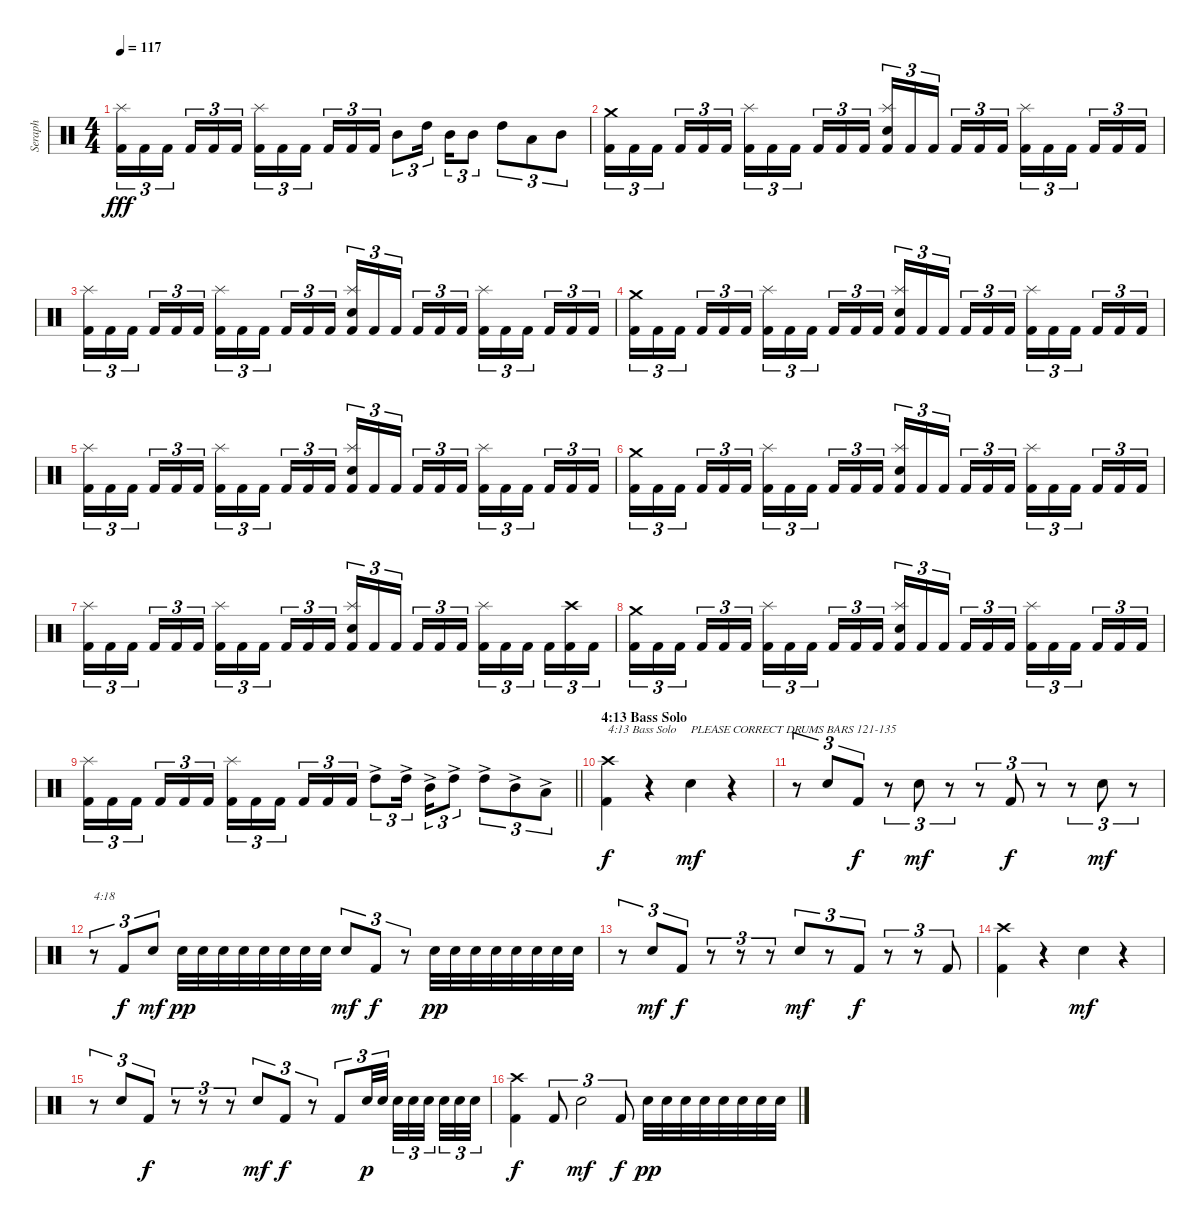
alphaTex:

\track ("Seraph" "Seraph") {instrument percussion}
\staff {score}
\articulation defaults
\ts (4 4)
\tempo 117
\clef neutral
\ks c
("Kick (hit) 2" "Splash (hit)").16{tu (3 2) dy fff} "Kick (hit) 2".16{tu (3 2)} "Kick (hit) 2".16{tu (3 2) beam splitsecondary} "Kick (hit) 2".16{tu (3 2)} "Kick (hit) 2".16{tu (3 2)} "Kick (hit) 2".16{tu (3 2)} ("Kick (hit) 2" "Splash (hit)").16{tu (3 2)} "Kick (hit) 2".16{tu (3 2)} "Kick (hit) 2".16{tu (3 2) beam splitsecondary} "Kick (hit) 2".16{tu (3 2)} "Kick (hit) 2".16{tu (3 2)} "Kick (hit) 2".16{tu (3 2)} "Mid Tom (hit)".8{tu (3 2)} "High Tom (hit)".16{tu (3 2) beam splitsecondary} "Mid Tom (hit)".16{tu (3 2)} "Mid Tom (hit)".8{tu (3 2)} "High Tom (hit)".8{tu (3 2)} "Low Tom (hit)".8{tu (3 2)} "Mid Tom (hit)".8{tu (3 2)} |
("Crash medium (hit)" "Kick (hit) 2").16{tu (3 2)} "Kick (hit) 2".16{tu (3 2)} "Kick (hit) 2".16{tu (3 2) beam splitsecondary} "Kick (hit) 2".16{tu (3 2)} "Kick (hit) 2".16{tu (3 2)} "Kick (hit) 2".16{tu (3 2)} ("Splash (hit)" "Kick (hit) 2").16{tu (3 2)} "Kick (hit) 2".16{tu (3 2)} "Kick (hit) 2".16{tu (3 2) beam splitsecondary} "Kick (hit) 2".16{tu (3 2)} "Kick (hit) 2".16{tu (3 2)} "Kick (hit) 2".16{tu (3 2)} ("Splash (hit)" "Electric Snare (hit)" "Kick (hit) 2").16{tu (3 2)} "Kick (hit) 2".16{tu (3 2)} "Kick (hit) 2".16{tu (3 2) beam splitsecondary} "Kick (hit) 2".16{tu (3 2)} "Kick (hit) 2".16{tu (3 2)} "Kick (hit) 2".16{tu (3 2)} ("Splash (hit)" "Kick (hit) 2").16{tu (3 2)} "Kick (hit) 2".16{tu (3 2)} "Kick (hit) 2".16{tu (3 2) beam splitsecondary} "Kick (hit) 2".16{tu (3 2)} "Kick (hit) 2".16{tu (3 2)} "Kick (hit) 2".16{tu (3 2)} |
("Splash (hit)" "Kick (hit) 2").16{tu (3 2)} "Kick (hit) 2".16{tu (3 2)} "Kick (hit) 2".16{tu (3 2) beam splitsecondary} "Kick (hit) 2".16{tu (3 2)} "Kick (hit) 2".16{tu (3 2)} "Kick (hit) 2".16{tu (3 2)} ("Splash (hit)" "Kick (hit) 2").16{tu (3 2)} "Kick (hit) 2".16{tu (3 2)} "Kick (hit) 2".16{tu (3 2) beam splitsecondary} "Kick (hit) 2".16{tu (3 2)} "Kick (hit) 2".16{tu (3 2)} "Kick (hit) 2".16{tu (3 2)} ("Splash (hit)" "Electric Snare (hit)" "Kick (hit) 2").16{tu (3 2)} "Kick (hit) 2".16{tu (3 2)} "Kick (hit) 2".16{tu (3 2) beam splitsecondary} "Kick (hit) 2".16{tu (3 2)} "Kick (hit) 2".16{tu (3 2)} "Kick (hit) 2".16{tu (3 2)} ("Splash (hit)" "Kick (hit) 2").16{tu (3 2)} "Kick (hit) 2".16{tu (3 2)} "Kick (hit) 2".16{tu (3 2) beam splitsecondary} "Kick (hit) 2".16{tu (3 2)} "Kick (hit) 2".16{tu (3 2)} "Kick (hit) 2".16{tu (3 2)} |
("Crash medium (hit)" "Kick (hit) 2").16{tu (3 2)} "Kick (hit) 2".16{tu (3 2)} "Kick (hit) 2".16{tu (3 2) beam splitsecondary} "Kick (hit) 2".16{tu (3 2)} "Kick (hit) 2".16{tu (3 2)} "Kick (hit) 2".16{tu (3 2)} ("Splash (hit)" "Kick (hit) 2").16{tu (3 2)} "Kick (hit) 2".16{tu (3 2)} "Kick (hit) 2".16{tu (3 2) beam splitsecondary} "Kick (hit) 2".16{tu (3 2)} "Kick (hit) 2".16{tu (3 2)} "Kick (hit) 2".16{tu (3 2)} ("Splash (hit)" "Electric Snare (hit)" "Kick (hit) 2").16{tu (3 2)} "Kick (hit) 2".16{tu (3 2)} "Kick (hit) 2".16{tu (3 2) beam splitsecondary} "Kick (hit) 2".16{tu (3 2)} "Kick (hit) 2".16{tu (3 2)} "Kick (hit) 2".16{tu (3 2)} ("Splash (hit)" "Kick (hit) 2").16{tu (3 2)} "Kick (hit) 2".16{tu (3 2)} "Kick (hit) 2".16{tu (3 2) beam splitsecondary} "Kick (hit) 2".16{tu (3 2)} "Kick (hit) 2".16{tu (3 2)} "Kick (hit) 2".16{tu (3 2)} |
("Splash (hit)" "Kick (hit) 2").16{tu (3 2)} "Kick (hit) 2".16{tu (3 2)} "Kick (hit) 2".16{tu (3 2) beam splitsecondary} "Kick (hit) 2".16{tu (3 2)} "Kick (hit) 2".16{tu (3 2)} "Kick (hit) 2".16{tu (3 2)} ("Splash (hit)" "Kick (hit) 2").16{tu (3 2)} "Kick (hit) 2".16{tu (3 2)} "Kick (hit) 2".16{tu (3 2) beam splitsecondary} "Kick (hit) 2".16{tu (3 2)} "Kick (hit) 2".16{tu (3 2)} "Kick (hit) 2".16{tu (3 2)} ("Splash (hit)" "Electric Snare (hit)" "Kick (hit) 2").16{tu (3 2)} "Kick (hit) 2".16{tu (3 2)} "Kick (hit) 2".16{tu (3 2) beam splitsecondary} "Kick (hit) 2".16{tu (3 2)} "Kick (hit) 2".16{tu (3 2)} "Kick (hit) 2".16{tu (3 2)} ("Splash (hit)" "Kick (hit) 2").16{tu (3 2)} "Kick (hit) 2".16{tu (3 2)} "Kick (hit) 2".16{tu (3 2) beam splitsecondary} "Kick (hit) 2".16{tu (3 2)} "Kick (hit) 2".16{tu (3 2)} "Kick (hit) 2".16{tu (3 2)} |
("Crash medium (hit)" "Kick (hit) 2").16{tu (3 2)} "Kick (hit) 2".16{tu (3 2)} "Kick (hit) 2".16{tu (3 2) beam splitsecondary} "Kick (hit) 2".16{tu (3 2)} "Kick (hit) 2".16{tu (3 2)} "Kick (hit) 2".16{tu (3 2)} ("Splash (hit)" "Kick (hit) 2").16{tu (3 2)} "Kick (hit) 2".16{tu (3 2)} "Kick (hit) 2".16{tu (3 2) beam splitsecondary} "Kick (hit) 2".16{tu (3 2)} "Kick (hit) 2".16{tu (3 2)} "Kick (hit) 2".16{tu (3 2)} ("Splash (hit)" "Electric Snare (hit)" "Kick (hit) 2").16{tu (3 2)} "Kick (hit) 2".16{tu (3 2)} "Kick (hit) 2".16{tu (3 2) beam splitsecondary} "Kick (hit) 2".16{tu (3 2)} "Kick (hit) 2".16{tu (3 2)} "Kick (hit) 2".16{tu (3 2)} ("Splash (hit)" "Kick (hit) 2").16{tu (3 2)} "Kick (hit) 2".16{tu (3 2)} "Kick (hit) 2".16{tu (3 2) beam splitsecondary} "Kick (hit) 2".16{tu (3 2)} "Kick (hit) 2".16{tu (3 2)} "Kick (hit) 2".16{tu (3 2)} |
("Splash (hit)" "Kick (hit) 2").16{tu (3 2)} "Kick (hit) 2".16{tu (3 2)} "Kick (hit) 2".16{tu (3 2) beam splitsecondary} "Kick (hit) 2".16{tu (3 2)} "Kick (hit) 2".16{tu (3 2)} "Kick (hit) 2".16{tu (3 2)} ("Splash (hit)" "Kick (hit) 2").16{tu (3 2)} "Kick (hit) 2".16{tu (3 2)} "Kick (hit) 2".16{tu (3 2) beam splitsecondary} "Kick (hit) 2".16{tu (3 2)} "Kick (hit) 2".16{tu (3 2)} "Kick (hit) 2".16{tu (3 2)} ("Splash (hit)" "Electric Snare (hit)" "Kick (hit) 2").16{tu (3 2)} "Kick (hit) 2".16{tu (3 2)} "Kick (hit) 2".16{tu (3 2) beam splitsecondary} "Kick (hit) 2".16{tu (3 2)} "Kick (hit) 2".16{tu (3 2)} "Kick (hit) 2".16{tu (3 2)} ("Splash (hit)" "Kick (hit) 2").16{tu (3 2)} "Kick (hit) 2".16{tu (3 2)} "Kick (hit) 2".16{tu (3 2) beam splitsecondary} "Kick (hit) 2".16{tu (3 2)} ("Crash high (hit)" "Kick (hit) 2").16{tu (3 2)} "Kick (hit) 2".16{tu (3 2)} |
("Crash medium (hit)" "Kick (hit) 2").16{tu (3 2)} "Kick (hit) 2".16{tu (3 2)} "Kick (hit) 2".16{tu (3 2) beam splitsecondary} "Kick (hit) 2".16{tu (3 2)} "Kick (hit) 2".16{tu (3 2)} "Kick (hit) 2".16{tu (3 2)} ("Splash (hit)" "Kick (hit) 2").16{tu (3 2)} "Kick (hit) 2".16{tu (3 2)} "Kick (hit) 2".16{tu (3 2) beam splitsecondary} "Kick (hit) 2".16{tu (3 2)} "Kick (hit) 2".16{tu (3 2)} "Kick (hit) 2".16{tu (3 2)} ("Splash (hit)" "Electric Snare (hit)" "Kick (hit) 2").16{tu (3 2)} "Kick (hit) 2".16{tu (3 2)} "Kick (hit) 2".16{tu (3 2) beam splitsecondary} "Kick (hit) 2".16{tu (3 2)} "Kick (hit) 2".16{tu (3 2)} "Kick (hit) 2".16{tu (3 2)} ("Splash (hit)" "Kick (hit) 2").16{tu (3 2)} "Kick (hit) 2".16{tu (3 2)} "Kick (hit) 2".16{tu (3 2) beam splitsecondary} "Kick (hit) 2".16{tu (3 2)} "Kick (hit) 2".16{tu (3 2)} "Kick (hit) 2".16{tu (3 2)} |
\barLineRight lightlight
("Kick (hit) 2" "Splash (hit)").16{tu (3 2)} "Kick (hit) 2".16{tu (3 2)} "Kick (hit) 2".16{tu (3 2) beam splitsecondary} "Kick (hit) 2".16{tu (3 2)} "Kick (hit) 2".16{tu (3 2)} "Kick (hit) 2".16{tu (3 2)} ("Kick (hit) 2" "Splash (hit)").16{tu (3 2)} "Kick (hit) 2".16{tu (3 2)} "Kick (hit) 2".16{tu (3 2) beam splitsecondary} "Kick (hit) 2".16{tu (3 2)} "Kick (hit) 2".16{tu (3 2)} "Kick (hit) 2".16{tu (3 2)} "High Tom (hit)"{ac}.8{tu (3 2)} "High Tom (hit)"{ac}.16{tu (3 2) beam splitsecondary} "Mid Tom (hit)"{ac}.16{tu (3 2)} "High Tom (hit)"{ac}.8{tu (3 2)} "High Tom (hit)"{ac}.8{tu (3 2)} "Mid Tom (hit)"{ac}.8{tu (3 2)} "Low Tom (hit)"{ac}.8{tu (3 2)} |
\section ("" "4:13 Bass Solo")
("Kick (hit) 2" "Crash high (hit)").4{txt "4:13 Bass Solo" dy f} r.4 "Electric Snare (hit)".4{txt "PLEASE CORRECT DRUMS BARS 121-135" dy mf} r.4 |
r.8{tu (3 2)} "Electric Snare (hit)".8{tu (3 2)} "Kick (hit) 2".8{tu (3 2) dy f} r.8{tu (3 2)} "Electric Snare (hit)".8{tu (3 2) dy mf} r.8{tu (3 2)} r.8{tu (3 2)} "Kick (hit) 2".8{tu (3 2) dy f} r.8{tu (3 2)} r.8{tu (3 2)} "Electric Snare (hit)".8{tu (3 2) dy mf} r.8{tu (3 2)} |
r.8{tu (3 2) txt "4:18"} "Kick (hit) 2".8{tu (3 2) dy f} "Electric Snare (hit)".8{tu (3 2) dy mf} "Electric Snare (hit)".32{dy pp} "Electric Snare (hit)".32 "Electric Snare (hit)".32 "Electric Snare (hit)".32 "Electric Snare (hit)".32 "Electric Snare (hit)".32 "Electric Snare (hit)".32 "Electric Snare (hit)".32 "Electric Snare (hit)".8{tu (3 2) dy mf} "Kick (hit) 2".8{tu (3 2) dy f} r.8{tu (3 2)} "Electric Snare (hit)".32{dy pp} "Electric Snare (hit)".32 "Electric Snare (hit)".32 "Electric Snare (hit)".32 "Electric Snare (hit)".32 "Electric Snare (hit)".32 "Electric Snare (hit)".32 "Electric Snare (hit)".32 |
r.8{tu (3 2)} "Electric Snare (hit)".8{tu (3 2) dy mf} "Kick (hit) 2".8{tu (3 2) dy f} r.8{tu (3 2)} r.8{tu (3 2)} r.8{tu (3 2)} "Electric Snare (hit)".8{tu (3 2) dy mf} r.8{tu (3 2)} "Kick (hit) 2".8{tu (3 2) dy f} r.8{tu (3 2)} r.8{tu (3 2)} "Kick (hit) 2".8{tu (3 2)} |
("Kick (hit) 2" "Crash high (hit)").4 r.4 "Electric Snare (hit)".4{dy mf} r.4 |
r.8{tu (3 2)} "Electric Snare (hit)".8{tu (3 2)} "Kick (hit) 2".8{tu (3 2) dy f} r.8{tu (3 2)} r.8{tu (3 2)} r.8{tu (3 2)} "Electric Snare (hit)".8{tu (3 2) dy mf} "Kick (hit) 2".8{tu (3 2) dy f} r.8{tu (3 2)} "Kick (hit) 2".8{tu (3 2)} "Electric Snare (hit)".32{tu (3 2) dy p} "Electric Snare (hit)".32{tu (3 2) beam splitsecondary} "Electric Snare (hit)".32{tu (3 2)} "Electric Snare (hit)".32{tu (3 2)} "Electric Snare (hit)".32{tu (3 2) beam splitsecondary} "Electric Snare (hit)".32{tu (3 2)} "Electric Snare (hit)".32{tu (3 2)} "Electric Snare (hit)".32{tu (3 2)} |
("Kick (hit) 2" "Crash high (hit)").4{dy f} "Kick (hit) 2".8{tu (3 2)} "Electric Snare (hit)".2{tu (3 2) dy mf} "Kick (hit) 2".8{tu (3 2) dy f} "Electric Snare (hit)".32{dy pp} "Electric Snare (hit)".32 "Electric Snare (hit)".32 "Electric Snare (hit)".32 "Electric Snare (hit)".32 "Electric Snare (hit)".32 "Electric Snare (hit)".32 "Electric Snare (hit)".32
